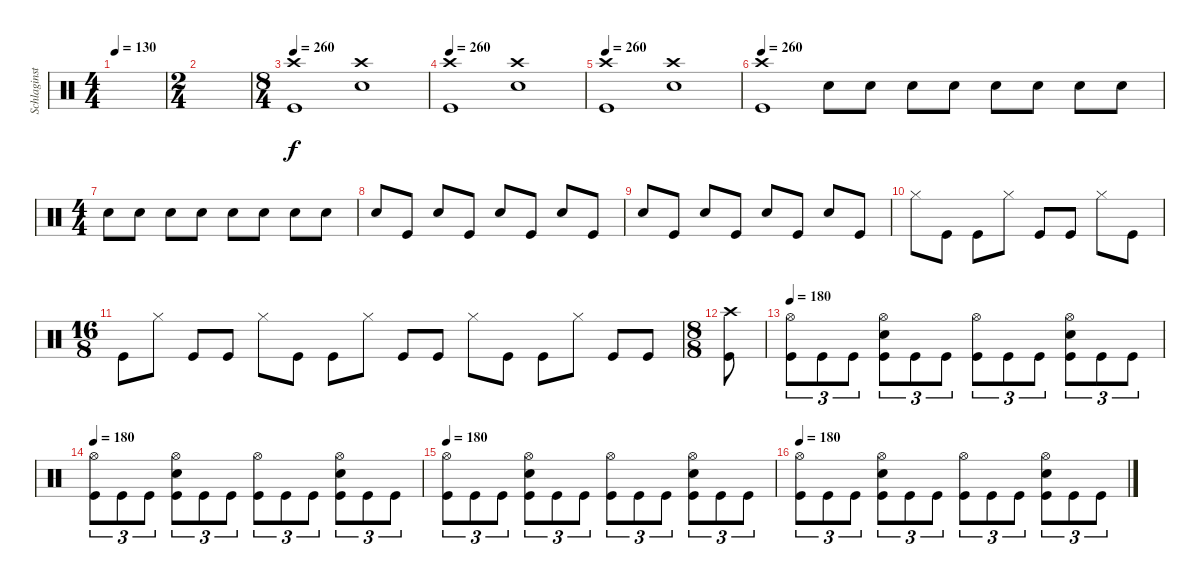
\track ("Schlaginstrumente - Auswahl" "Schlaginst") {instrument percussion}
\staff {score}
\articulation defaults
\ts (4 4)
\tempo 130
\clef neutral
\ks c
|
\ts (2 4)
|
\ts (8 4)
\tempo 260
("Crash high (hit)" "Kick (hit)").1 ("Crash high (hit)" "Electric Snare (hit)").1 |
\tempo 260
("Crash high (hit)" "Kick (hit)").1 ("Crash high (hit)" "Electric Snare (hit)").1 |
\tempo 260
("Crash high (hit)" "Kick (hit)").1 ("Crash high (hit)" "Electric Snare (hit)").1 |
\tempo 260
("Crash high (hit)" "Kick (hit)").1 "Electric Snare (hit)".8 "Electric Snare (hit)".8 "Electric Snare (hit)".8 "Electric Snare (hit)".8 "Electric Snare (hit)".8 "Electric Snare (hit)".8 "Electric Snare (hit)".8 "Electric Snare (hit)".8 |
\ts (4 4)
"Electric Snare (hit)".8 "Electric Snare (hit)".8 "Electric Snare (hit)".8 "Electric Snare (hit)".8 "Electric Snare (hit)".8 "Electric Snare (hit)".8 "Electric Snare (hit)".8 "Electric Snare (hit)".8 |
"Electric Snare (hit)".8 "Kick (hit)".8 "Electric Snare (hit)".8 "Kick (hit)".8 "Electric Snare (hit)".8 "Kick (hit)".8 "Electric Snare (hit)".8 "Kick (hit)".8 |
"Electric Snare (hit)".8 "Kick (hit)".8 "Electric Snare (hit)".8 "Kick (hit)".8 "Electric Snare (hit)".8 "Kick (hit)".8 "Electric Snare (hit)".8 "Kick (hit)".8 |
"Hi-Hat (closed)".8 "Kick (hit)".8 "Kick (hit)".8 "Hi-Hat (closed)".8 "Kick (hit)".8 "Kick (hit)".8 "Hi-Hat (closed)".8 "Kick (hit)".8 |
\ts (16 8)
"Kick (hit)".8 "Hi-Hat (closed)".8 "Kick (hit)".8 "Kick (hit)".8 "Hi-Hat (closed)".8 "Kick (hit)".8 "Kick (hit)".8 "Hi-Hat (closed)".8 "Kick (hit)".8 "Kick (hit)".8 "Hi-Hat (closed)".8 "Kick (hit)".8 "Kick (hit)".8 "Hi-Hat (closed)".8 "Kick (hit)".8 "Kick (hit)".8 |
\ts (8 8)
("Crash high (hit)" "Kick (hit)").8 |
\tempo 180
("Hi-Hat (open)" "Kick (hit)").8{tu (3 2)} "Kick (hit)".8{tu (3 2)} "Kick (hit)".8{tu (3 2)} ("Hi-Hat (open)" "Electric Snare (hit)" "Kick (hit)").8{tu (3 2)} "Kick (hit)".8{tu (3 2)} "Kick (hit)".8{tu (3 2)} ("Hi-Hat (open)" "Kick (hit)").8{tu (3 2)} "Kick (hit)".8{tu (3 2)} "Kick (hit)".8{tu (3 2)} ("Hi-Hat (open)" "Electric Snare (hit)" "Kick (hit)").8{tu (3 2)} "Kick (hit)".8{tu (3 2)} "Kick (hit)".8{tu (3 2)} |
\tempo 180
("Hi-Hat (open)" "Kick (hit)").8{tu (3 2)} "Kick (hit)".8{tu (3 2)} "Kick (hit)".8{tu (3 2)} ("Hi-Hat (open)" "Electric Snare (hit)" "Kick (hit)").8{tu (3 2)} "Kick (hit)".8{tu (3 2)} "Kick (hit)".8{tu (3 2)} ("Hi-Hat (open)" "Kick (hit)").8{tu (3 2)} "Kick (hit)".8{tu (3 2)} "Kick (hit)".8{tu (3 2)} ("Hi-Hat (open)" "Electric Snare (hit)" "Kick (hit)").8{tu (3 2)} "Kick (hit)".8{tu (3 2)} "Kick (hit)".8{tu (3 2)} |
\tempo 180
("Hi-Hat (open)" "Kick (hit)").8{tu (3 2)} "Kick (hit)".8{tu (3 2)} "Kick (hit)".8{tu (3 2)} ("Hi-Hat (open)" "Electric Snare (hit)" "Kick (hit)").8{tu (3 2)} "Kick (hit)".8{tu (3 2)} "Kick (hit)".8{tu (3 2)} ("Hi-Hat (open)" "Kick (hit)").8{tu (3 2)} "Kick (hit)".8{tu (3 2)} "Kick (hit)".8{tu (3 2)} ("Hi-Hat (open)" "Electric Snare (hit)" "Kick (hit)").8{tu (3 2)} "Kick (hit)".8{tu (3 2)} "Kick (hit)".8{tu (3 2)} |
\tempo 180
("Hi-Hat (open)" "Kick (hit)").8{tu (3 2)} "Kick (hit)".8{tu (3 2)} "Kick (hit)".8{tu (3 2)} ("Hi-Hat (open)" "Electric Snare (hit)" "Kick (hit)").8{tu (3 2)} "Kick (hit)".8{tu (3 2)} "Kick (hit)".8{tu (3 2)} ("Hi-Hat (open)" "Kick (hit)").8{tu (3 2)} "Kick (hit)".8{tu (3 2)} "Kick (hit)".8{tu (3 2)} ("Hi-Hat (open)" "Electric Snare (hit)" "Kick (hit)").8{tu (3 2)} "Kick (hit)".8{tu (3 2)} "Kick (hit)".8{tu (3 2)}
